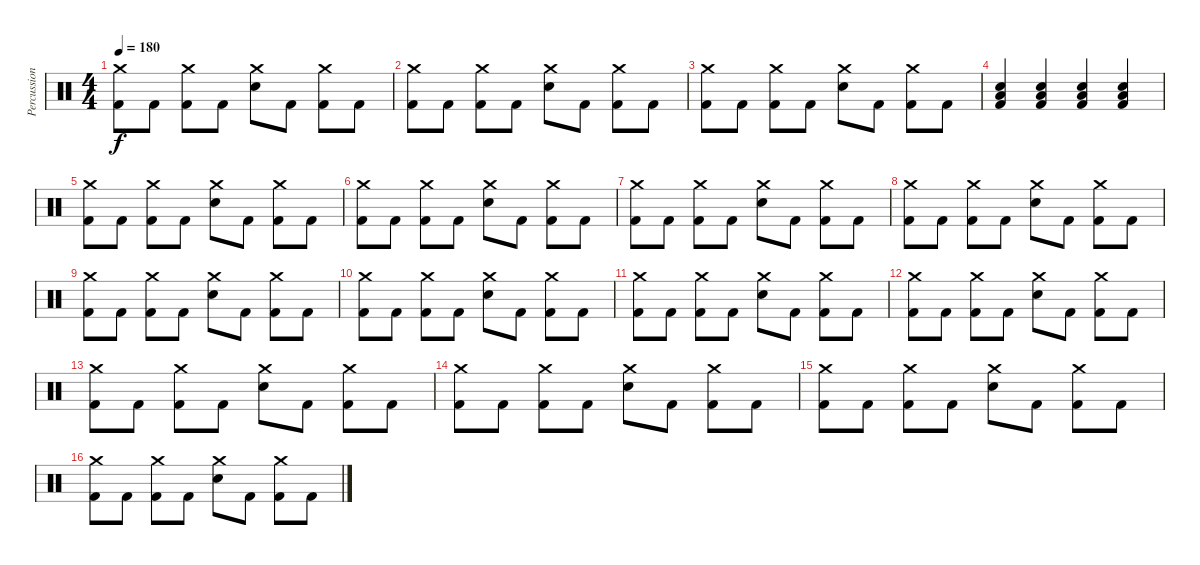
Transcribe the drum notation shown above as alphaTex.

\track ("Percussion" "Percussion") {instrument percussion}
\staff {score}
\articulation defaults
\ts (4 4)
\tempo 180
\clef neutral
\ks c
("Kick (hit) 2" "Crash medium (hit)").8{dy f} "Kick (hit) 2".8 ("Kick (hit) 2" "Crash medium (hit)").8 "Kick (hit) 2".8 ("Electric Snare (hit)" "Crash medium (hit)").8 "Kick (hit) 2".8 ("Kick (hit) 2" "Crash medium (hit)").8 "Kick (hit) 2".8 |
("Kick (hit) 2" "Crash medium (hit)").8 "Kick (hit) 2".8 ("Kick (hit) 2" "Crash medium (hit)").8 "Kick (hit) 2".8 ("Electric Snare (hit)" "Crash medium (hit)").8 "Kick (hit) 2".8 ("Kick (hit) 2" "Crash medium (hit)").8 "Kick (hit) 2".8 |
("Kick (hit) 2" "Crash medium (hit)").8 "Kick (hit) 2".8 ("Kick (hit) 2" "Crash medium (hit)").8 "Kick (hit) 2".8 ("Electric Snare (hit)" "Crash medium (hit)").8 "Kick (hit) 2".8 ("Kick (hit) 2" "Crash medium (hit)").8 "Kick (hit) 2".8 |
("Kick (hit) 2" "Electric Snare (hit)" "Low Tom (hit)").4 ("Kick (hit) 2" "Electric Snare (hit)" "Low Tom (hit)").4 ("Kick (hit) 2" "Electric Snare (hit)" "Low Tom (hit)").4 ("Kick (hit) 2" "Electric Snare (hit)" "Low Tom (hit)").4 |
("Kick (hit) 2" "Crash medium (hit)").8 "Kick (hit) 2".8 ("Kick (hit) 2" "Crash medium (hit)").8 "Kick (hit) 2".8 ("Electric Snare (hit)" "Crash medium (hit)").8 "Kick (hit) 2".8 ("Kick (hit) 2" "Crash medium (hit)").8 "Kick (hit) 2".8 |
("Kick (hit) 2" "Crash medium (hit)").8 "Kick (hit) 2".8 ("Kick (hit) 2" "Crash medium (hit)").8 "Kick (hit) 2".8 ("Electric Snare (hit)" "Crash medium (hit)").8 "Kick (hit) 2".8 ("Kick (hit) 2" "Crash medium (hit)").8 "Kick (hit) 2".8 |
("Kick (hit) 2" "Crash medium (hit)").8 "Kick (hit) 2".8 ("Kick (hit) 2" "Crash medium (hit)").8 "Kick (hit) 2".8 ("Electric Snare (hit)" "Crash medium (hit)").8 "Kick (hit) 2".8 ("Kick (hit) 2" "Crash medium (hit)").8 "Kick (hit) 2".8 |
("Kick (hit) 2" "Crash medium (hit)").8 "Kick (hit) 2".8 ("Kick (hit) 2" "Crash medium (hit)").8 "Kick (hit) 2".8 ("Electric Snare (hit)" "Crash medium (hit)").8 "Kick (hit) 2".8 ("Kick (hit) 2" "Crash medium (hit)").8 "Kick (hit) 2".8 |
("Kick (hit) 2" "Crash medium (hit)").8 "Kick (hit) 2".8 ("Kick (hit) 2" "Crash medium (hit)").8 "Kick (hit) 2".8 ("Electric Snare (hit)" "Crash medium (hit)").8 "Kick (hit) 2".8 ("Kick (hit) 2" "Crash medium (hit)").8 "Kick (hit) 2".8 |
("Kick (hit) 2" "Crash medium (hit)").8 "Kick (hit) 2".8 ("Kick (hit) 2" "Crash medium (hit)").8 "Kick (hit) 2".8 ("Electric Snare (hit)" "Crash medium (hit)").8 "Kick (hit) 2".8 ("Kick (hit) 2" "Crash medium (hit)").8 "Kick (hit) 2".8 |
("Kick (hit) 2" "Crash medium (hit)").8 "Kick (hit) 2".8 ("Kick (hit) 2" "Crash medium (hit)").8 "Kick (hit) 2".8 ("Electric Snare (hit)" "Crash medium (hit)").8 "Kick (hit) 2".8 ("Kick (hit) 2" "Crash medium (hit)").8 "Kick (hit) 2".8 |
("Kick (hit) 2" "Crash medium (hit)").8 "Kick (hit) 2".8 ("Kick (hit) 2" "Crash medium (hit)").8 "Kick (hit) 2".8 ("Electric Snare (hit)" "Crash medium (hit)").8 "Kick (hit) 2".8 ("Kick (hit) 2" "Crash medium (hit)").8 "Kick (hit) 2".8 |
("Kick (hit) 2" "Crash medium (hit)").8 "Kick (hit) 2".8 ("Kick (hit) 2" "Crash medium (hit)").8 "Kick (hit) 2".8 ("Electric Snare (hit)" "Crash medium (hit)").8 "Kick (hit) 2".8 ("Kick (hit) 2" "Crash medium (hit)").8 "Kick (hit) 2".8 |
("Kick (hit) 2" "Crash medium (hit)").8 "Kick (hit) 2".8 ("Kick (hit) 2" "Crash medium (hit)").8 "Kick (hit) 2".8 ("Electric Snare (hit)" "Crash medium (hit)").8 "Kick (hit) 2".8 ("Kick (hit) 2" "Crash medium (hit)").8 "Kick (hit) 2".8 |
("Kick (hit) 2" "Crash medium (hit)").8 "Kick (hit) 2".8 ("Kick (hit) 2" "Crash medium (hit)").8 "Kick (hit) 2".8 ("Electric Snare (hit)" "Crash medium (hit)").8 "Kick (hit) 2".8 ("Kick (hit) 2" "Crash medium (hit)").8 "Kick (hit) 2".8 |
("Kick (hit) 2" "Crash medium (hit)").8 "Kick (hit) 2".8 ("Kick (hit) 2" "Crash medium (hit)").8 "Kick (hit) 2".8 ("Electric Snare (hit)" "Crash medium (hit)").8 "Kick (hit) 2".8 ("Kick (hit) 2" "Crash medium (hit)").8 "Kick (hit) 2".8
